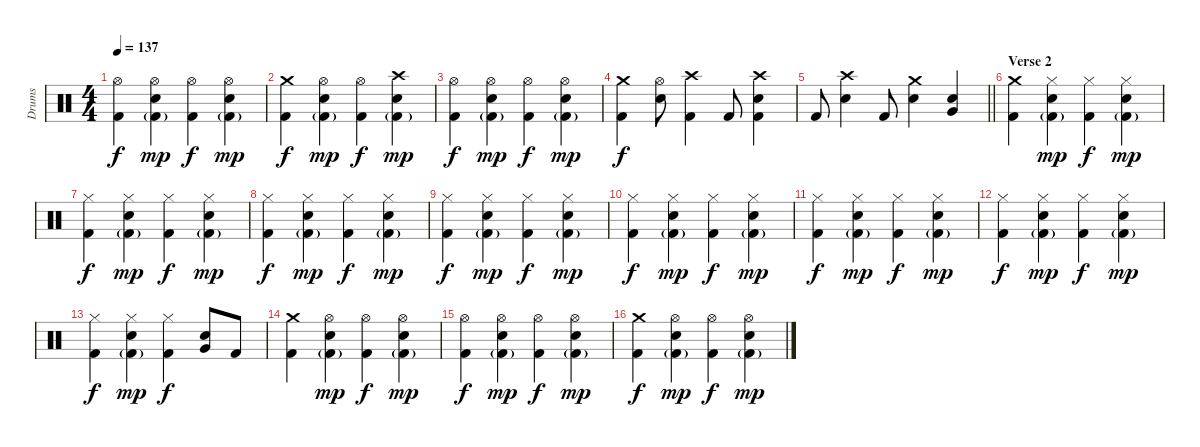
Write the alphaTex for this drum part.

\track ("Drums" "Drums") {instrument percussion}
\staff {score}
\articulation defaults
\ts (4 4)
\tempo 137
\clef neutral
\ks c
("Hi-Hat (open)" "Kick (hit) 2").4{dy f} ("Hi-Hat (open)" "Electric Snare (hit)" "Kick (hit) 2"{g}).4{dy mp} ("Hi-Hat (open)" "Kick (hit) 2").4{dy f} ("Hi-Hat (open)" "Electric Snare (hit)" "Kick (hit) 2"{g}).4{dy mp} |
("Crash medium (hit)" "Kick (hit) 2").4{dy f} ("Hi-Hat (open)" "Electric Snare (hit)" "Kick (hit) 2"{g}).4{dy mp} ("Hi-Hat (open)" "Kick (hit) 2").4{dy f} ("Crash high (hit)" "Electric Snare (hit)" "Kick (hit) 2"{g}).4{dy mp} |
("Hi-Hat (open)" "Kick (hit) 2").4{dy f} ("Hi-Hat (open)" "Electric Snare (hit)" "Kick (hit) 2"{g}).4{dy mp} ("Hi-Hat (open)" "Kick (hit) 2").4{dy f} ("Hi-Hat (open)" "Electric Snare (hit)" "Kick (hit) 2"{g}).4{dy mp} |
("Crash medium (hit)" "Kick (hit) 2").4{dy f} ("Hi-Hat (open)" "Electric Snare (hit)").8 ("Crash high (hit)" "Kick (hit) 2").4 "Kick (hit) 2".8 ("Crash high (hit)" "Electric Snare (hit)" "Kick (hit) 2").4 |
\barLineRight lightlight "Kick (hit) 2".8
("Crash high (hit)" "Electric Snare (hit)").4 "Kick (hit) 2".8 ("Crash medium (hit)" "Electric Snare (hit)").4 ("Very Low Tom (hit)" "Electric Snare (hit)").4 |
\section ("" "Verse 2")
("Crash medium (hit)" "Kick (hit) 2").4 ("Hi-Hat (closed)" "Electric Snare (hit)" "Kick (hit) 2"{g}).4{dy mp} ("Hi-Hat (closed)" "Kick (hit) 2").4{dy f} ("Hi-Hat (closed)" "Electric Snare (hit)" "Kick (hit) 2"{g}).4{dy mp} |
("Hi-Hat (closed)" "Kick (hit) 2").4{dy f} ("Hi-Hat (closed)" "Electric Snare (hit)" "Kick (hit) 2"{g}).4{dy mp} ("Hi-Hat (closed)" "Kick (hit) 2").4{dy f} ("Hi-Hat (closed)" "Electric Snare (hit)" "Kick (hit) 2"{g}).4{dy mp} |
("Hi-Hat (closed)" "Kick (hit) 2").4{dy f} ("Hi-Hat (closed)" "Electric Snare (hit)" "Kick (hit) 2"{g}).4{dy mp} ("Hi-Hat (closed)" "Kick (hit) 2").4{dy f} ("Hi-Hat (closed)" "Electric Snare (hit)" "Kick (hit) 2"{g}).4{dy mp} |
("Hi-Hat (closed)" "Kick (hit) 2").4{dy f} ("Hi-Hat (closed)" "Electric Snare (hit)" "Kick (hit) 2"{g}).4{dy mp} ("Hi-Hat (closed)" "Kick (hit) 2").4{dy f} ("Hi-Hat (closed)" "Electric Snare (hit)" "Kick (hit) 2"{g}).4{dy mp} |
("Hi-Hat (closed)" "Kick (hit) 2").4{dy f} ("Hi-Hat (closed)" "Electric Snare (hit)" "Kick (hit) 2"{g}).4{dy mp} ("Hi-Hat (closed)" "Kick (hit) 2").4{dy f} ("Hi-Hat (closed)" "Electric Snare (hit)" "Kick (hit) 2"{g}).4{dy mp} |
("Hi-Hat (closed)" "Kick (hit) 2").4{dy f} ("Hi-Hat (closed)" "Electric Snare (hit)" "Kick (hit) 2"{g}).4{dy mp} ("Hi-Hat (closed)" "Kick (hit) 2").4{dy f} ("Hi-Hat (closed)" "Electric Snare (hit)" "Kick (hit) 2"{g}).4{dy mp} |
("Hi-Hat (closed)" "Kick (hit) 2").4{dy f} ("Hi-Hat (closed)" "Electric Snare (hit)" "Kick (hit) 2"{g}).4{dy mp} ("Hi-Hat (closed)" "Kick (hit) 2").4{dy f} ("Hi-Hat (closed)" "Electric Snare (hit)" "Kick (hit) 2"{g}).4{dy mp} |
("Hi-Hat (closed)" "Kick (hit) 2").4{dy f} ("Hi-Hat (closed)" "Electric Snare (hit)" "Kick (hit) 2"{g}).4{dy mp} ("Hi-Hat (closed)" "Kick (hit) 2").4{dy f} ("Electric Snare (hit)" "Very Low Tom (hit)").8 "Kick (hit) 2".8 |
("Crash medium (hit)" "Kick (hit) 2").4 ("Hi-Hat (open)" "Electric Snare (hit)" "Kick (hit) 2"{g}).4{dy mp} ("Hi-Hat (open)" "Kick (hit) 2").4{dy f} ("Hi-Hat (open)" "Electric Snare (hit)" "Kick (hit) 2"{g}).4{dy mp} |
("Hi-Hat (open)" "Kick (hit) 2").4{dy f} ("Hi-Hat (open)" "Electric Snare (hit)" "Kick (hit) 2"{g}).4{dy mp} ("Hi-Hat (open)" "Kick (hit) 2").4{dy f} ("Hi-Hat (open)" "Electric Snare (hit)" "Kick (hit) 2"{g}).4{dy mp} |
("Crash medium (hit)" "Kick (hit) 2").4{dy f} ("Hi-Hat (open)" "Electric Snare (hit)" "Kick (hit) 2"{g}).4{dy mp} ("Hi-Hat (open)" "Kick (hit) 2").4{dy f} ("Hi-Hat (open)" "Electric Snare (hit)" "Kick (hit) 2"{g}).4{dy mp}
